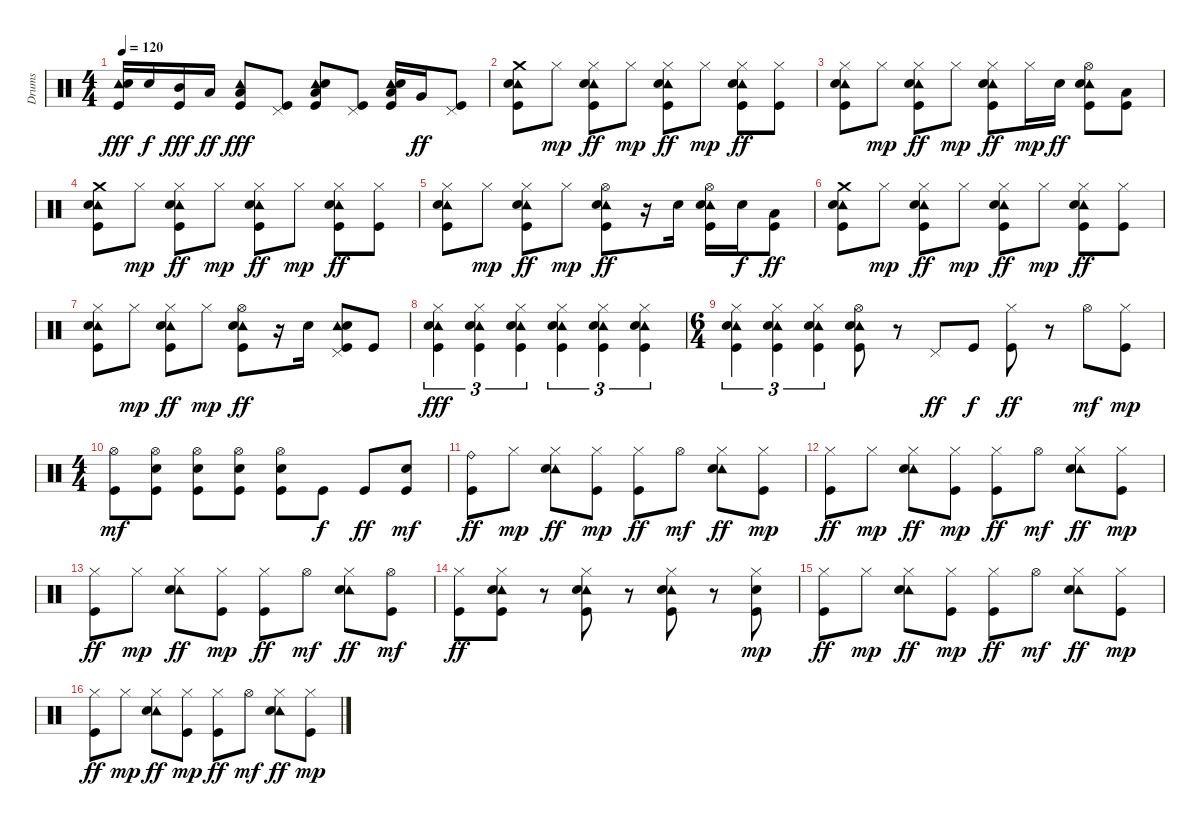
\track ("Drums" "Drums") {instrument percussion}
\staff {score}
\articulation defaults
\ts (4 4)
\tempo 120
\clef neutral
\ks c
("Tambourine (hit)" "Snare (hit) 2" "Kick (hit)").16{dy fff} "Snare (hit) 2".16{dy f} ("Mid Tom (hit)" "Kick (hit)").16{dy fff} "Low Tom (hit)".16{dy ff} ("Tambourine (hit)" "Low Tom (hit)" "Kick (hit)").8{dy fff} ("Pedal Hi-Hat (hit)" "Kick (hit)").8 ("Tambourine (hit)" "Low Tom (hit)" "Snare (hit) 2" "Kick (hit)").8 ("Pedal Hi-Hat (hit)" "Kick (hit)").8 ("Tambourine (hit)" "Low Tom (hit)" "Snare (hit) 2" "Kick (hit)").16 "Very Low Tom (hit)".16{dy ff} ("Pedal Hi-Hat (hit)" "Kick (hit)").8 |
("Crash medium (hit)" "Tambourine (hit)" "Snare (hit) 2" "Kick (hit)").8 "Hi-Hat (closed)".8{dy mp} ("Hi-Hat (closed)" "Tambourine (hit)" "Snare (hit) 2" "Kick (hit)").8{dy ff} "Hi-Hat (closed)".8{dy mp} ("Hi-Hat (closed)" "Tambourine (hit)" "Snare (hit) 2" "Kick (hit)").8{dy ff} "Hi-Hat (closed)".8{dy mp} ("Hi-Hat (closed)" "Tambourine (hit)" "Snare (hit) 2" "Kick (hit)").8{dy ff} ("Hi-Hat (closed)" "Kick (hit)").8 |
("Hi-Hat (closed)" "Tambourine (hit)" "Snare (hit) 2" "Kick (hit)").8 "Hi-Hat (closed)".8{dy mp} ("Hi-Hat (closed)" "Tambourine (hit)" "Snare (hit) 2" "Kick (hit)").8{dy ff} "Hi-Hat (closed)".8{dy mp} ("Hi-Hat (closed)" "Tambourine (hit)" "Snare (hit) 2" "Kick (hit)").8{dy ff} "Hi-Hat (closed)".16{dy mp} "Snare (hit) 2".16{dy ff} ("Hi-Hat (open)" "Tambourine (hit)" "Snare (hit) 2" "Kick (hit)").8 ("Low Floor Tom (hit)" "Kick (hit)").8 |
("Crash medium (hit)" "Tambourine (hit)" "Snare (hit) 2" "Kick (hit)").8 "Hi-Hat (closed)".8{dy mp} ("Hi-Hat (closed)" "Tambourine (hit)" "Snare (hit) 2" "Kick (hit)").8{dy ff} "Hi-Hat (closed)".8{dy mp} ("Hi-Hat (closed)" "Tambourine (hit)" "Snare (hit) 2" "Kick (hit)").8{dy ff} "Hi-Hat (closed)".8{dy mp} ("Hi-Hat (closed)" "Tambourine (hit)" "Snare (hit) 2" "Kick (hit)").8{dy ff} ("Hi-Hat (closed)" "Kick (hit)").8 |
("Hi-Hat (closed)" "Tambourine (hit)" "Snare (hit) 2" "Kick (hit)").8 "Hi-Hat (closed)".8{dy mp} ("Hi-Hat (closed)" "Tambourine (hit)" "Snare (hit) 2" "Kick (hit)").8{dy ff} "Hi-Hat (closed)".8{dy mp} ("Hi-Hat (open)" "Tambourine (hit)" "Snare (hit) 2" "Kick (hit)").8{dy ff} r.16 "Snare (hit) 2".16 ("Hi-Hat (open)" "Tambourine (hit)" "Snare (hit) 2" "Kick (hit)").16 "Snare (hit) 2".16{dy f} ("Low Floor Tom (hit)" "Kick (hit)").8{dy ff} |
("Crash medium (hit)" "Tambourine (hit)" "Snare (hit) 2" "Kick (hit)").8 "Hi-Hat (closed)".8{dy mp} ("Hi-Hat (closed)" "Tambourine (hit)" "Snare (hit) 2" "Kick (hit)").8{dy ff} "Hi-Hat (closed)".8{dy mp} ("Hi-Hat (closed)" "Tambourine (hit)" "Snare (hit) 2" "Kick (hit)").8{dy ff} "Hi-Hat (closed)".8{dy mp} ("Hi-Hat (closed)" "Tambourine (hit)" "Snare (hit) 2" "Kick (hit)").8{dy ff} ("Hi-Hat (closed)" "Kick (hit)").8 |
("Hi-Hat (closed)" "Tambourine (hit)" "Snare (hit) 2" "Kick (hit)").8 "Hi-Hat (closed)".8{dy mp} ("Hi-Hat (closed)" "Tambourine (hit)" "Snare (hit) 2" "Kick (hit)").8{dy ff} "Hi-Hat (closed)".8{dy mp} ("Hi-Hat (open)" "Tambourine (hit)" "Snare (hit) 2" "Kick (hit)").8{dy ff} r.16 "Snare (hit) 2".16 ("Pedal Hi-Hat (hit)" "Tambourine (hit)" "Snare (hit) 2" "Kick (hit)").8 "Kick (hit)".8 |
("Hi-Hat (closed)" "Tambourine (hit)" "Snare (hit) 2" "Kick (hit)").4{tu (3 2) dy fff} ("Hi-Hat (closed)" "Tambourine (hit)" "Snare (hit) 2" "Kick (hit)").4{tu (3 2)} ("Hi-Hat (closed)" "Tambourine (hit)" "Snare (hit) 2" "Kick (hit)").4{tu (3 2)} ("Hi-Hat (closed)" "Tambourine (hit)" "Snare (hit) 2" "Kick (hit)").4{tu (3 2)} ("Hi-Hat (closed)" "Tambourine (hit)" "Snare (hit) 2" "Kick (hit)").4{tu (3 2)} ("Hi-Hat (closed)" "Tambourine (hit)" "Snare (hit) 2" "Kick (hit)").4{tu (3 2)} |
\ts (6 4)
("Hi-Hat (closed)" "Tambourine (hit)" "Snare (hit) 2" "Kick (hit)").4{tu (3 2)} ("Hi-Hat (closed)" "Tambourine (hit)" "Snare (hit) 2" "Kick (hit)").4{tu (3 2)} ("Hi-Hat (closed)" "Tambourine (hit)" "Snare (hit) 2" "Kick (hit)").4{tu (3 2)} ("Hi-Hat (open)" "Tambourine (hit)" "Snare (hit) 2" "Kick (hit)").8 r.8 "Pedal Hi-Hat (hit)".8{dy ff} "Kick (hit)".8{dy f} ("Hi-Hat (closed)" "Kick (hit)").8{dy ff} r.8 "Hi-Hat (open)".8{dy mf} ("Hi-Hat (closed)" "Kick (hit)").8{dy mp} |
\ts (4 4)
("Hi-Hat (open)" "Kick (hit)").8{dy mf} ("Hi-Hat (open)" "Snare (hit) 2" "Kick (hit)").8 ("Hi-Hat (open)" "Snare (hit) 2" "Kick (hit)").8 ("Hi-Hat (open)" "Snare (hit) 2" "Kick (hit)").8 ("Hi-Hat (open)" "Snare (hit) 2" "Kick (hit)").8 "Kick (hit)".8{dy f} "Kick (hit)".8{dy ff} ("Snare (hit) 2" "Kick (hit)").8{dy mf} |
("Ride (bell)" "Kick (hit)").8{dy ff} "Hi-Hat (closed)".8{dy mp} ("Hi-Hat (closed)" "Tambourine (hit)" "Snare (hit) 2").8{dy ff} ("Hi-Hat (closed)" "Kick (hit)").8{dy mp} ("Hi-Hat (closed)" "Kick (hit)").8{dy ff} "Hi-Hat (open)".8{dy mf} ("Hi-Hat (closed)" "Tambourine (hit)" "Snare (hit) 2").8{dy ff} ("Hi-Hat (closed)" "Kick (hit)").8{dy mp} |
("Hi-Hat (closed)" "Kick (hit)").8{dy ff} "Hi-Hat (closed)".8{dy mp} ("Hi-Hat (closed)" "Tambourine (hit)" "Snare (hit) 2").8{dy ff} ("Hi-Hat (closed)" "Kick (hit)").8{dy mp} ("Hi-Hat (closed)" "Kick (hit)").8{dy ff} "Hi-Hat (open)".8{dy mf} ("Hi-Hat (closed)" "Tambourine (hit)" "Snare (hit) 2").8{dy ff} ("Hi-Hat (closed)" "Kick (hit)").8{dy mp} |
("Hi-Hat (closed)" "Kick (hit)").8{dy ff} "Hi-Hat (closed)".8{dy mp} ("Hi-Hat (closed)" "Tambourine (hit)" "Snare (hit) 2").8{dy ff} ("Hi-Hat (closed)" "Kick (hit)").8{dy mp} ("Hi-Hat (closed)" "Kick (hit)").8{dy ff} "Hi-Hat (open)".8{dy mf} ("Hi-Hat (closed)" "Tambourine (hit)" "Snare (hit) 2").8{dy ff} ("Hi-Hat (open)" "Kick (hit)").8{dy mf} |
("Hi-Hat (closed)" "Kick (hit)").8{dy ff} ("Hi-Hat (closed)" "Tambourine (hit)" "Snare (hit) 2" "Kick (hit)").8 r.8 ("Hi-Hat (closed)" "Tambourine (hit)" "Snare (hit) 2" "Kick (hit)").8 r.8 ("Hi-Hat (closed)" "Tambourine (hit)" "Snare (hit) 2" "Kick (hit)").8 r.8 ("Hi-Hat (closed)" "Snare (hit) 2" "Kick (hit)").8{dy mp} |
("Hi-Hat (closed)" "Kick (hit)").8{dy ff} "Hi-Hat (closed)".8{dy mp} ("Hi-Hat (closed)" "Tambourine (hit)" "Snare (hit) 2").8{dy ff} ("Hi-Hat (closed)" "Kick (hit)").8{dy mp} ("Hi-Hat (closed)" "Kick (hit)").8{dy ff} "Hi-Hat (open)".8{dy mf} ("Hi-Hat (closed)" "Tambourine (hit)" "Snare (hit) 2").8{dy ff} ("Hi-Hat (closed)" "Kick (hit)").8{dy mp} |
("Hi-Hat (closed)" "Kick (hit)").8{dy ff} "Hi-Hat (closed)".8{dy mp} ("Hi-Hat (closed)" "Tambourine (hit)" "Snare (hit) 2").8{dy ff} ("Hi-Hat (closed)" "Kick (hit)").8{dy mp} ("Hi-Hat (closed)" "Kick (hit)").8{dy ff} "Hi-Hat (open)".8{dy mf} ("Hi-Hat (closed)" "Tambourine (hit)" "Snare (hit) 2").8{dy ff} ("Hi-Hat (closed)" "Kick (hit)").8{dy mp}
